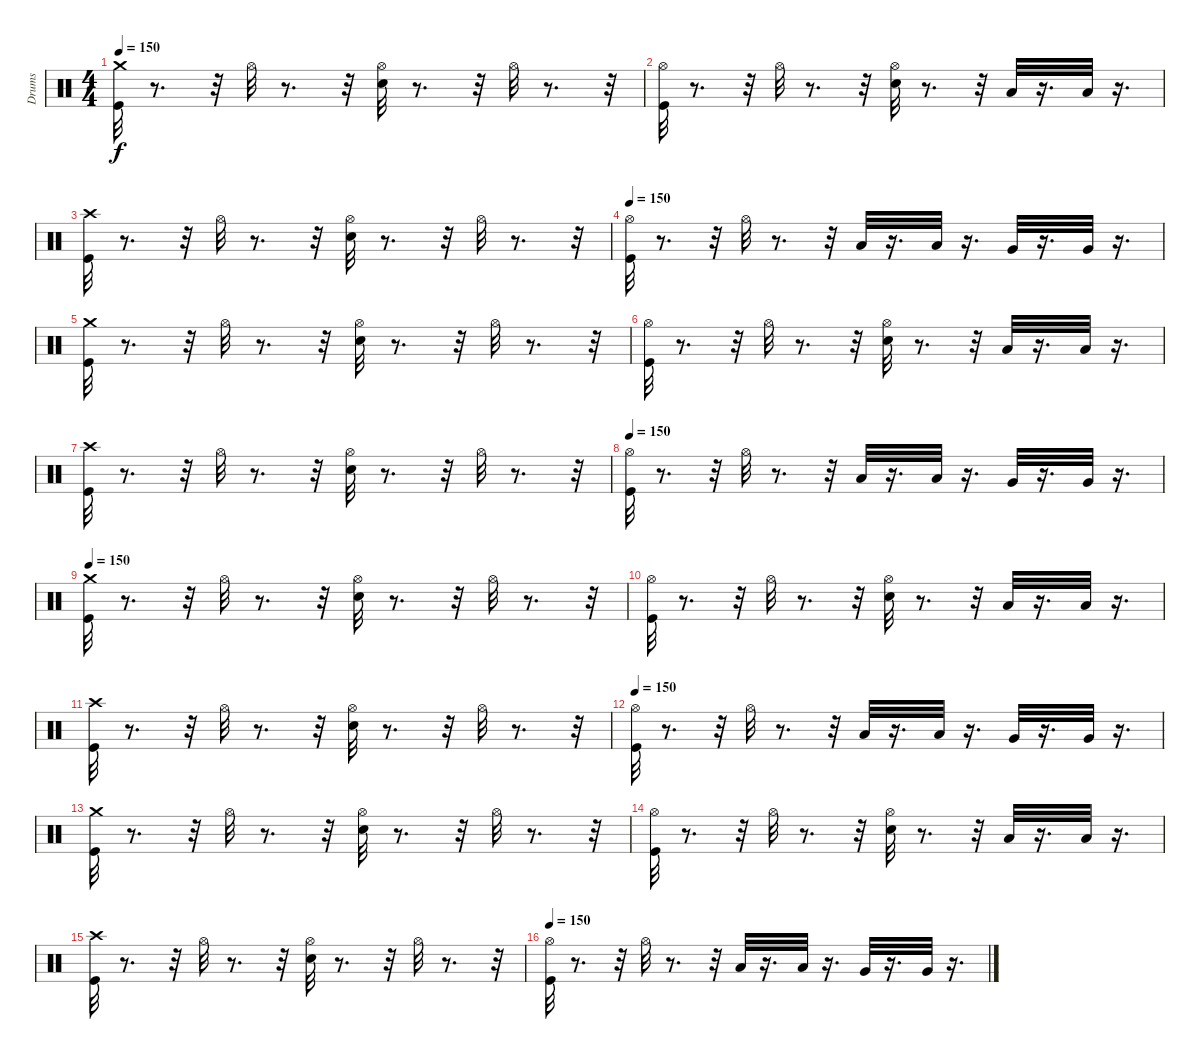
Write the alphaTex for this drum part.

\track ("Drums" "Drums") {instrument percussion}
\staff {score}
\articulation defaults
\ts (4 4)
\tempo 150
\clef neutral
\ks c
("Crash medium (hit)" "Kick (hit)").32{dy f} r.8{d} r.32 "Hi-Hat (open)".32 r.8{d} r.32 ("Hi-Hat (open)" "Electric Snare (hit)").32 r.8{d} r.32 "Hi-Hat (open)".32 r.8{d} r.32 |
("Hi-Hat (open)" "Kick (hit)").32 r.8{d} r.32 "Hi-Hat (open)".32 r.8{d} r.32 ("Hi-Hat (open)" "Electric Snare (hit)").32 r.8{d} r.32 "Low Tom (hit)".32 r.16{d} "Low Tom (hit)".32 r.16{d} |
("Kick (hit)" "Crash high (hit)").32 r.8{d} r.32 "Hi-Hat (open)".32 r.8{d} r.32 ("Hi-Hat (open)" "Electric Snare (hit)").32 r.8{d} r.32 "Hi-Hat (open)".32 r.8{d} r.32 |
\tempo 150
("Hi-Hat (open)" "Kick (hit)").32 r.8{d} r.32 "Hi-Hat (open)".32 r.8{d} r.32 "Low Tom (hit)".32 r.16{d} "Low Tom (hit)".32 r.16{d} "Very Low Tom (hit)".32 r.16{d} "Very Low Tom (hit)".32 r.16{d} |
("Crash medium (hit)" "Kick (hit)").32 r.8{d} r.32 "Hi-Hat (open)".32 r.8{d} r.32 ("Hi-Hat (open)" "Electric Snare (hit)").32 r.8{d} r.32 "Hi-Hat (open)".32 r.8{d} r.32 |
("Hi-Hat (open)" "Kick (hit)").32 r.8{d} r.32 "Hi-Hat (open)".32 r.8{d} r.32 ("Hi-Hat (open)" "Electric Snare (hit)").32 r.8{d} r.32 "Low Tom (hit)".32 r.16{d} "Low Tom (hit)".32 r.16{d} |
("Kick (hit)" "Crash high (hit)").32 r.8{d} r.32 "Hi-Hat (open)".32 r.8{d} r.32 ("Hi-Hat (open)" "Electric Snare (hit)").32 r.8{d} r.32 "Hi-Hat (open)".32 r.8{d} r.32 |
\tempo 150
("Hi-Hat (open)" "Kick (hit)").32 r.8{d} r.32 "Hi-Hat (open)".32 r.8{d} r.32 "Low Tom (hit)".32 r.16{d} "Low Tom (hit)".32 r.16{d} "Very Low Tom (hit)".32 r.16{d} "Very Low Tom (hit)".32 r.16{d} |
\tempo 150
("Crash medium (hit)" "Kick (hit)").32 r.8{d} r.32 "Hi-Hat (open)".32 r.8{d} r.32 ("Hi-Hat (open)" "Electric Snare (hit)").32 r.8{d} r.32 "Hi-Hat (open)".32 r.8{d} r.32 |
("Hi-Hat (open)" "Kick (hit)").32 r.8{d} r.32 "Hi-Hat (open)".32 r.8{d} r.32 ("Hi-Hat (open)" "Electric Snare (hit)").32 r.8{d} r.32 "Low Tom (hit)".32 r.16{d} "Low Tom (hit)".32 r.16{d} |
("Kick (hit)" "Crash high (hit)").32 r.8{d} r.32 "Hi-Hat (open)".32 r.8{d} r.32 ("Hi-Hat (open)" "Electric Snare (hit)").32 r.8{d} r.32 "Hi-Hat (open)".32 r.8{d} r.32 |
\tempo 150
("Hi-Hat (open)" "Kick (hit)").32 r.8{d} r.32 "Hi-Hat (open)".32 r.8{d} r.32 "Low Tom (hit)".32 r.16{d} "Low Tom (hit)".32 r.16{d} "Very Low Tom (hit)".32 r.16{d} "Very Low Tom (hit)".32 r.16{d} |
("Crash medium (hit)" "Kick (hit)").32 r.8{d} r.32 "Hi-Hat (open)".32 r.8{d} r.32 ("Hi-Hat (open)" "Electric Snare (hit)").32 r.8{d} r.32 "Hi-Hat (open)".32 r.8{d} r.32 |
("Hi-Hat (open)" "Kick (hit)").32 r.8{d} r.32 "Hi-Hat (open)".32 r.8{d} r.32 ("Hi-Hat (open)" "Electric Snare (hit)").32 r.8{d} r.32 "Low Tom (hit)".32 r.16{d} "Low Tom (hit)".32 r.16{d} |
("Kick (hit)" "Crash high (hit)").32 r.8{d} r.32 "Hi-Hat (open)".32 r.8{d} r.32 ("Hi-Hat (open)" "Electric Snare (hit)").32 r.8{d} r.32 "Hi-Hat (open)".32 r.8{d} r.32 |
\tempo 150
("Hi-Hat (open)" "Kick (hit)").32 r.8{d} r.32 "Hi-Hat (open)".32 r.8{d} r.32 "Low Tom (hit)".32 r.16{d} "Low Tom (hit)".32 r.16{d} "Very Low Tom (hit)".32 r.16{d} "Very Low Tom (hit)".32 r.16{d}
